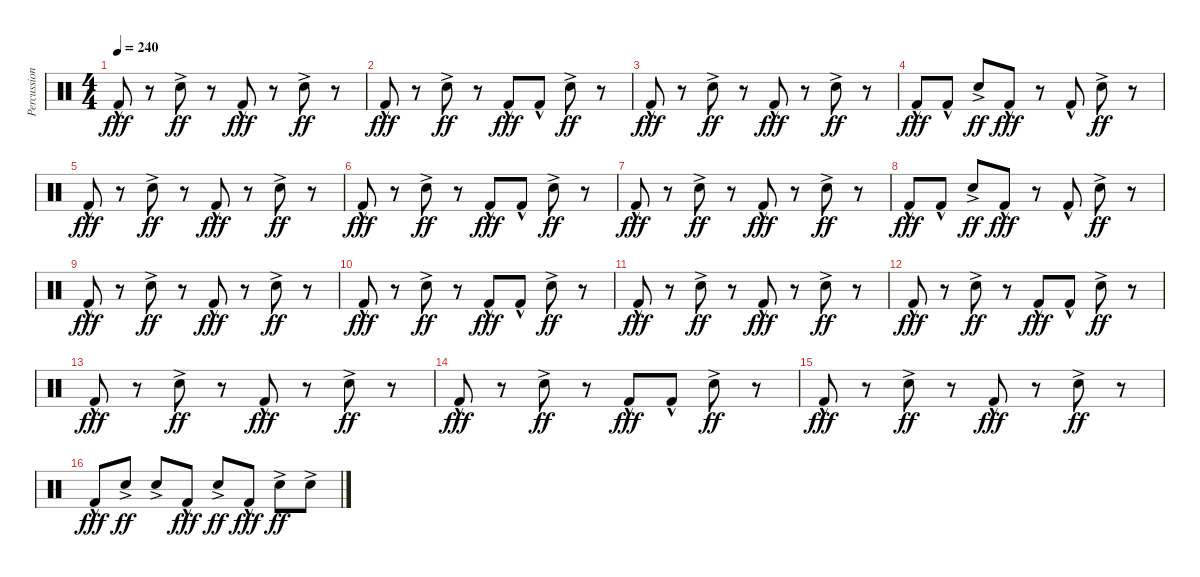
\track ("Percussion" "Percussion") {instrument percussion bank 255}
\staff {score}
\articulation defaults
\ts (4 4)
\tempo 240
\clef neutral
\ks c "Kick (hit) 2"{hac}.8{dy fff}
r.8 "Snare (hit) 2"{ac}.8{dy ff} r.8 "Kick (hit) 2"{hac}.8{dy fff} r.8 "Snare (hit) 2"{ac}.8{dy ff} r.8 |
"Kick (hit) 2"{hac}.8{dy fff} r.8 "Snare (hit) 2"{ac}.8{dy ff} r.8 "Kick (hit) 2"{hac}.8{dy fff} "Kick (hit) 2"{hac}.8 "Snare (hit) 2"{ac}.8{dy ff} r.8 |
"Kick (hit) 2"{hac}.8{dy fff} r.8 "Snare (hit) 2"{ac}.8{dy ff} r.8 "Kick (hit) 2"{hac}.8{dy fff} r.8 "Snare (hit) 2"{ac}.8{dy ff} r.8 |
"Kick (hit) 2"{hac}.8{dy fff} "Kick (hit) 2"{hac}.8 "Snare (hit) 2"{ac}.8{dy ff} "Kick (hit) 2"{hac}.8{dy fff} r.8 "Kick (hit) 2"{hac}.8 "Snare (hit) 2"{ac}.8{dy ff} r.8 |
"Kick (hit) 2"{hac}.8{dy fff} r.8 "Snare (hit) 2"{ac}.8{dy ff} r.8 "Kick (hit) 2"{hac}.8{dy fff} r.8 "Snare (hit) 2"{ac}.8{dy ff} r.8 |
"Kick (hit) 2"{hac}.8{dy fff} r.8 "Snare (hit) 2"{ac}.8{dy ff} r.8 "Kick (hit) 2"{hac}.8{dy fff} "Kick (hit) 2"{hac}.8 "Snare (hit) 2"{ac}.8{dy ff} r.8 |
"Kick (hit) 2"{hac}.8{dy fff} r.8 "Snare (hit) 2"{ac}.8{dy ff} r.8 "Kick (hit) 2"{hac}.8{dy fff} r.8 "Snare (hit) 2"{ac}.8{dy ff} r.8 |
"Kick (hit) 2"{hac}.8{dy fff} "Kick (hit) 2"{hac}.8 "Snare (hit) 2"{ac}.8{dy ff} "Kick (hit) 2"{hac}.8{dy fff} r.8 "Kick (hit) 2"{hac}.8 "Snare (hit) 2"{ac}.8{dy ff} r.8 |
"Kick (hit) 2"{hac}.8{dy fff} r.8 "Snare (hit) 2"{ac}.8{dy ff} r.8 "Kick (hit) 2"{hac}.8{dy fff} r.8 "Snare (hit) 2"{ac}.8{dy ff} r.8 |
"Kick (hit) 2"{hac}.8{dy fff} r.8 "Snare (hit) 2"{ac}.8{dy ff} r.8 "Kick (hit) 2"{hac}.8{dy fff} "Kick (hit) 2"{hac}.8 "Snare (hit) 2"{ac}.8{dy ff} r.8 |
"Kick (hit) 2"{hac}.8{dy fff} r.8 "Snare (hit) 2"{ac}.8{dy ff} r.8 "Kick (hit) 2"{hac}.8{dy fff} r.8 "Snare (hit) 2"{ac}.8{dy ff} r.8 |
"Kick (hit) 2"{hac}.8{dy fff} r.8 "Snare (hit) 2"{ac}.8{dy ff} r.8 "Kick (hit) 2"{hac}.8{dy fff} "Kick (hit) 2"{hac}.8 "Snare (hit) 2"{ac}.8{dy ff} r.8 |
"Kick (hit) 2"{hac}.8{dy fff} r.8 "Snare (hit) 2"{ac}.8{dy ff} r.8 "Kick (hit) 2"{hac}.8{dy fff} r.8 "Snare (hit) 2"{ac}.8{dy ff} r.8 |
"Kick (hit) 2"{hac}.8{dy fff} r.8 "Snare (hit) 2"{ac}.8{dy ff} r.8 "Kick (hit) 2"{hac}.8{dy fff} "Kick (hit) 2"{hac}.8 "Snare (hit) 2"{ac}.8{dy ff} r.8 |
"Kick (hit) 2"{hac}.8{dy fff} r.8 "Snare (hit) 2"{ac}.8{dy ff} r.8 "Kick (hit) 2"{hac}.8{dy fff} r.8 "Snare (hit) 2"{ac}.8{dy ff} r.8 |
"Kick (hit) 2"{hac}.8{dy fff} "Snare (hit) 2"{ac}.8{dy ff} "Snare (hit) 2"{ac}.8 "Kick (hit) 2"{hac}.8{dy fff} "Snare (hit) 2"{ac}.8{dy ff} "Kick (hit) 2"{hac}.8{dy fff} "Snare (hit) 2"{ac}.8{dy ff} "Snare (hit) 2"{ac}.8
